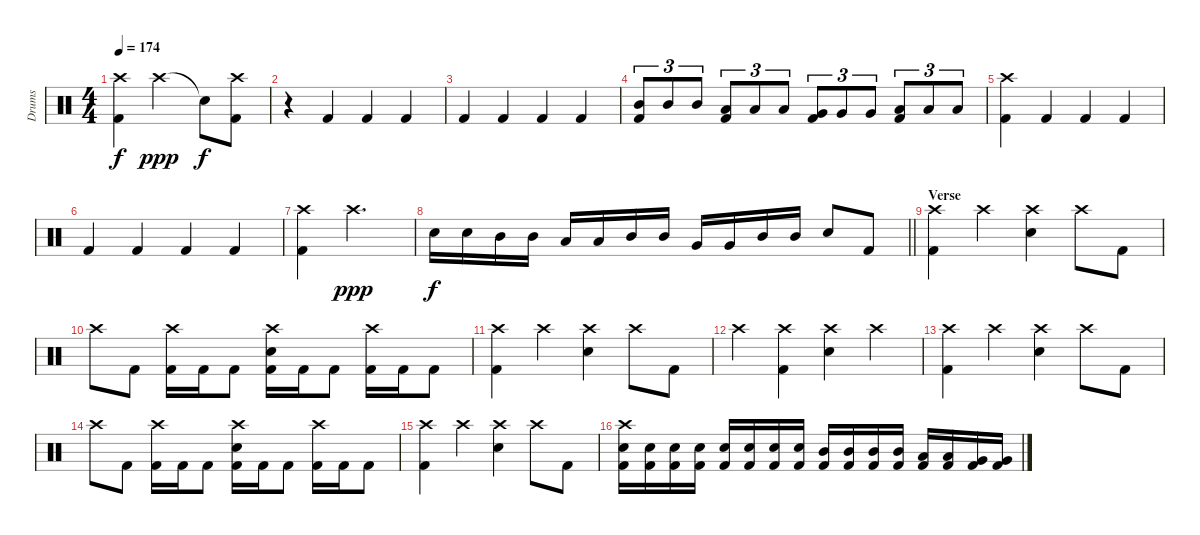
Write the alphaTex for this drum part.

\track ("Drums" "Drums") {instrument percussion}
\staff {score}
\articulation defaults
\ts (4 4)
\tempo 174
\clef neutral
\ks c
("Crash high (hit)" "Kick (hit) 2").4{dy f} "Crash high (hit)".2{dy ppp} "Snare (hit)"{t}.8{dy f} ("Crash high (hit)" "Kick (hit) 2").8 |
r.4 "Kick (hit) 2".4 "Kick (hit) 2".4 "Kick (hit) 2".4 |
"Kick (hit) 2".4 "Kick (hit) 2".4 "Kick (hit) 2".4 "Kick (hit) 2".4 |
("Mid Tom (hit)" "Kick (hit) 2").8{tu (3 2)} "Mid Tom (hit)".8{tu (3 2)} "Mid Tom (hit)".8{tu (3 2)} ("Low Tom (hit)" "Kick (hit) 2").8{tu (3 2)} "Low Tom (hit)".8{tu (3 2)} "Low Tom (hit)".8{tu (3 2)} ("Very Low Tom (hit)" "Kick (hit) 2").8{tu (3 2)} "Very Low Tom (hit)".8{tu (3 2)} "Very Low Tom (hit)".8{tu (3 2)} ("Low Floor Tom (hit)" "Kick (hit) 2").8{tu (3 2)} "Low Floor Tom (hit)".8{tu (3 2)} "Low Floor Tom (hit)".8{tu (3 2)} |
("Crash high (hit)" "Kick (hit) 2").4 "Kick (hit) 2".4 "Kick (hit) 2".4 "Kick (hit) 2".4 |
"Kick (hit) 2".4 "Kick (hit) 2".4 "Kick (hit) 2".4 "Kick (hit) 2".4 |
("Crash high (hit)" "Kick (hit) 2").4 "Crash high (hit)".2{d dy ppp} |
\barLineRight lightlight "Electric Snare (hit)".16{dy f} "Electric Snare (hit)".16 "Mid Tom (hit)".16 "Mid Tom (hit)".16 "Low Tom (hit)".16 "Low Tom (hit)".16 "Mid Tom (hit)".16 "Mid Tom (hit)".16 "Very Low Tom (hit)".16 "Very Low Tom (hit)".16 "Mid Tom (hit)".16 "Mid Tom (hit)".16 "Electric Snare (hit)".8 "Kick (hit) 2".8
|
\section ("" "Verse")
("Crash high (hit)" "Kick (hit) 2").4 "Crash high (hit)".4 ("Crash high (hit)" "Electric Snare (hit)").4 "Crash high (hit)".8 "Kick (hit) 2".8 |
"Crash high (hit)".8 "Kick (hit) 2".8 ("Crash high (hit)" "Kick (hit) 2").16 "Kick (hit) 2".16 "Kick (hit) 2".8 ("Crash high (hit)" "Electric Snare (hit)" "Kick (hit) 2").16 "Kick (hit) 2".16 "Kick (hit) 2".8 ("Crash high (hit)" "Kick (hit) 2").16 "Kick (hit) 2".16 "Kick (hit) 2".8 |
("Crash high (hit)" "Kick (hit) 2").4 "Crash high (hit)".4 ("Crash high (hit)" "Electric Snare (hit)").4 "Crash high (hit)".8 "Kick (hit) 2".8 |
"Crash high (hit)".4 ("Crash high (hit)" "Kick (hit) 2").4 ("Crash high (hit)" "Electric Snare (hit)").4 "Crash high (hit)".4 |
("Crash high (hit)" "Kick (hit) 2").4 "Crash high (hit)".4 ("Crash high (hit)" "Electric Snare (hit)").4 "Crash high (hit)".8 "Kick (hit) 2".8 |
"Crash high (hit)".8 "Kick (hit) 2".8 ("Crash high (hit)" "Kick (hit) 2").16 "Kick (hit) 2".16 "Kick (hit) 2".8 ("Crash high (hit)" "Electric Snare (hit)" "Kick (hit) 2").16 "Kick (hit) 2".16 "Kick (hit) 2".8 ("Crash high (hit)" "Kick (hit) 2").16 "Kick (hit) 2".16 "Kick (hit) 2".8 |
("Crash high (hit)" "Kick (hit) 2").4 "Crash high (hit)".4 ("Crash high (hit)" "Electric Snare (hit)").4 "Crash high (hit)".8 "Kick (hit) 2".8 |
("Crash high (hit)" "Electric Snare (hit)" "Kick (hit) 2").16 ("Electric Snare (hit)" "Kick (hit) 2").16 ("Electric Snare (hit)" "Kick (hit) 2").16 ("Electric Snare (hit)" "Kick (hit) 2").16 ("Electric Snare (hit)" "Kick (hit) 2").16 ("Electric Snare (hit)" "Kick (hit) 2").16 ("Electric Snare (hit)" "Kick (hit) 2").16 ("Electric Snare (hit)" "Kick (hit) 2").16 ("Mid Tom (hit)" "Kick (hit) 2").16 ("Mid Tom (hit)" "Kick (hit) 2").16 ("Mid Tom (hit)" "Kick (hit) 2").16 ("Mid Tom (hit)" "Kick (hit) 2").16 ("Low Tom (hit)" "Kick (hit) 2").16 ("Low Tom (hit)" "Kick (hit) 2").16 ("Very Low Tom (hit)" "Kick (hit) 2").16 ("Very Low Tom (hit)" "Kick (hit) 2").16
